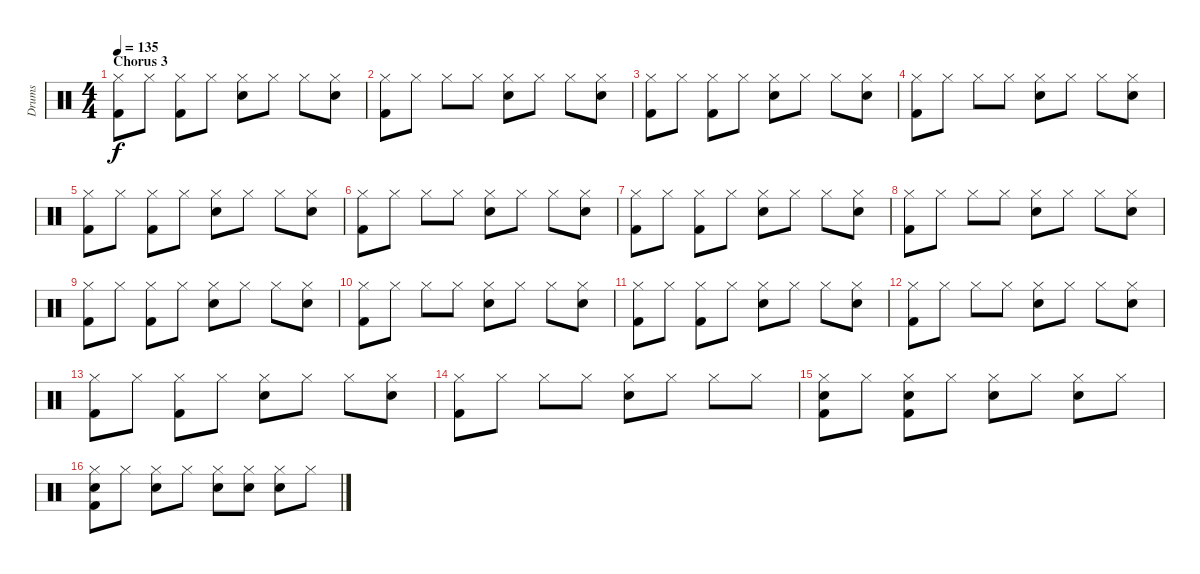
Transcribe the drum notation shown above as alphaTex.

\track ("Drums" "Drums") {instrument percussion}
\staff {score}
\articulation defaults
\ts (4 4)
\section ("" "Chorus 3")
\tempo 135
\clef neutral
\ks c
("Kick (hit) 2" "Hi-Hat (closed)").8{dy f} "Hi-Hat (closed)".8 ("Kick (hit) 2" "Hi-Hat (closed)").8 "Hi-Hat (closed)".8 ("Snare (hit) 2" "Hi-Hat (closed)").8 "Hi-Hat (closed)".8 "Hi-Hat (closed)".8 ("Snare (hit) 2" "Hi-Hat (closed)").8 |
("Kick (hit) 2" "Hi-Hat (closed)").8 "Hi-Hat (closed)".8 "Hi-Hat (closed)".8 "Hi-Hat (closed)".8 ("Snare (hit) 2" "Hi-Hat (closed)").8 "Hi-Hat (closed)".8 "Hi-Hat (closed)".8 ("Snare (hit) 2" "Hi-Hat (closed)").8 |
("Kick (hit) 2" "Hi-Hat (closed)").8 "Hi-Hat (closed)".8 ("Kick (hit) 2" "Hi-Hat (closed)").8 "Hi-Hat (closed)".8 ("Snare (hit) 2" "Hi-Hat (closed)").8 "Hi-Hat (closed)".8 "Hi-Hat (closed)".8 ("Snare (hit) 2" "Hi-Hat (closed)").8 |
("Kick (hit) 2" "Hi-Hat (closed)").8 "Hi-Hat (closed)".8 "Hi-Hat (closed)".8 "Hi-Hat (closed)".8 ("Snare (hit) 2" "Hi-Hat (closed)").8 "Hi-Hat (closed)".8 "Hi-Hat (closed)".8 ("Snare (hit) 2" "Hi-Hat (closed)").8 |
("Kick (hit) 2" "Hi-Hat (closed)").8 "Hi-Hat (closed)".8 ("Kick (hit) 2" "Hi-Hat (closed)").8 "Hi-Hat (closed)".8 ("Snare (hit) 2" "Hi-Hat (closed)").8 "Hi-Hat (closed)".8 "Hi-Hat (closed)".8 ("Snare (hit) 2" "Hi-Hat (closed)").8 |
("Kick (hit) 2" "Hi-Hat (closed)").8 "Hi-Hat (closed)".8 "Hi-Hat (closed)".8 "Hi-Hat (closed)".8 ("Snare (hit) 2" "Hi-Hat (closed)").8 "Hi-Hat (closed)".8 "Hi-Hat (closed)".8 ("Snare (hit) 2" "Hi-Hat (closed)").8 |
("Kick (hit) 2" "Hi-Hat (closed)").8 "Hi-Hat (closed)".8 ("Kick (hit) 2" "Hi-Hat (closed)").8 "Hi-Hat (closed)".8 ("Snare (hit) 2" "Hi-Hat (closed)").8 "Hi-Hat (closed)".8 "Hi-Hat (closed)".8 ("Snare (hit) 2" "Hi-Hat (closed)").8 |
("Kick (hit) 2" "Hi-Hat (closed)").8 "Hi-Hat (closed)".8 "Hi-Hat (closed)".8 "Hi-Hat (closed)".8 ("Snare (hit) 2" "Hi-Hat (closed)").8 "Hi-Hat (closed)".8 "Hi-Hat (closed)".8 ("Snare (hit) 2" "Hi-Hat (closed)").8 |
("Kick (hit) 2" "Hi-Hat (closed)").8 "Hi-Hat (closed)".8 ("Kick (hit) 2" "Hi-Hat (closed)").8 "Hi-Hat (closed)".8 ("Snare (hit) 2" "Hi-Hat (closed)").8 "Hi-Hat (closed)".8 "Hi-Hat (closed)".8 ("Snare (hit) 2" "Hi-Hat (closed)").8 |
("Kick (hit) 2" "Hi-Hat (closed)").8 "Hi-Hat (closed)".8 "Hi-Hat (closed)".8 "Hi-Hat (closed)".8 ("Snare (hit) 2" "Hi-Hat (closed)").8 "Hi-Hat (closed)".8 "Hi-Hat (closed)".8 ("Snare (hit) 2" "Hi-Hat (closed)").8 |
("Kick (hit) 2" "Hi-Hat (closed)").8 "Hi-Hat (closed)".8 ("Kick (hit) 2" "Hi-Hat (closed)").8 "Hi-Hat (closed)".8 ("Snare (hit) 2" "Hi-Hat (closed)").8 "Hi-Hat (closed)".8 "Hi-Hat (closed)".8 ("Snare (hit) 2" "Hi-Hat (closed)").8 |
("Kick (hit) 2" "Hi-Hat (closed)").8 "Hi-Hat (closed)".8 "Hi-Hat (closed)".8 "Hi-Hat (closed)".8 ("Snare (hit) 2" "Hi-Hat (closed)").8 "Hi-Hat (closed)".8 "Hi-Hat (closed)".8 ("Snare (hit) 2" "Hi-Hat (closed)").8 |
("Kick (hit) 2" "Hi-Hat (closed)").8 "Hi-Hat (closed)".8 ("Kick (hit) 2" "Hi-Hat (closed)").8 "Hi-Hat (closed)".8 ("Snare (hit) 2" "Hi-Hat (closed)").8 "Hi-Hat (closed)".8 "Hi-Hat (closed)".8 ("Snare (hit) 2" "Hi-Hat (closed)").8 |
("Kick (hit) 2" "Hi-Hat (closed)").8 "Hi-Hat (closed)".8 "Hi-Hat (closed)".8 "Hi-Hat (closed)".8 ("Snare (hit) 2" "Hi-Hat (closed)").8 "Hi-Hat (closed)".8 "Hi-Hat (closed)".8 "Hi-Hat (closed)".8 |
("Kick (hit) 2" "Snare (hit) 2" "Hi-Hat (closed)").8 "Hi-Hat (closed)".8 ("Kick (hit) 2" "Snare (hit) 2" "Hi-Hat (closed)").8 "Hi-Hat (closed)".8 ("Snare (hit) 2" "Hi-Hat (closed)").8 "Hi-Hat (closed)".8 ("Snare (hit) 2" "Hi-Hat (closed)").8 "Hi-Hat (closed)".8 |
("Kick (hit) 2" "Snare (hit) 2" "Hi-Hat (closed)").8 "Hi-Hat (closed)".8 ("Snare (hit) 2" "Hi-Hat (closed)").8 "Hi-Hat (closed)".8 ("Snare (hit) 2" "Hi-Hat (closed)").8 ("Snare (hit) 2" "Hi-Hat (closed)").8 ("Snare (hit) 2" "Hi-Hat (closed)").8 "Hi-Hat (closed)".8
